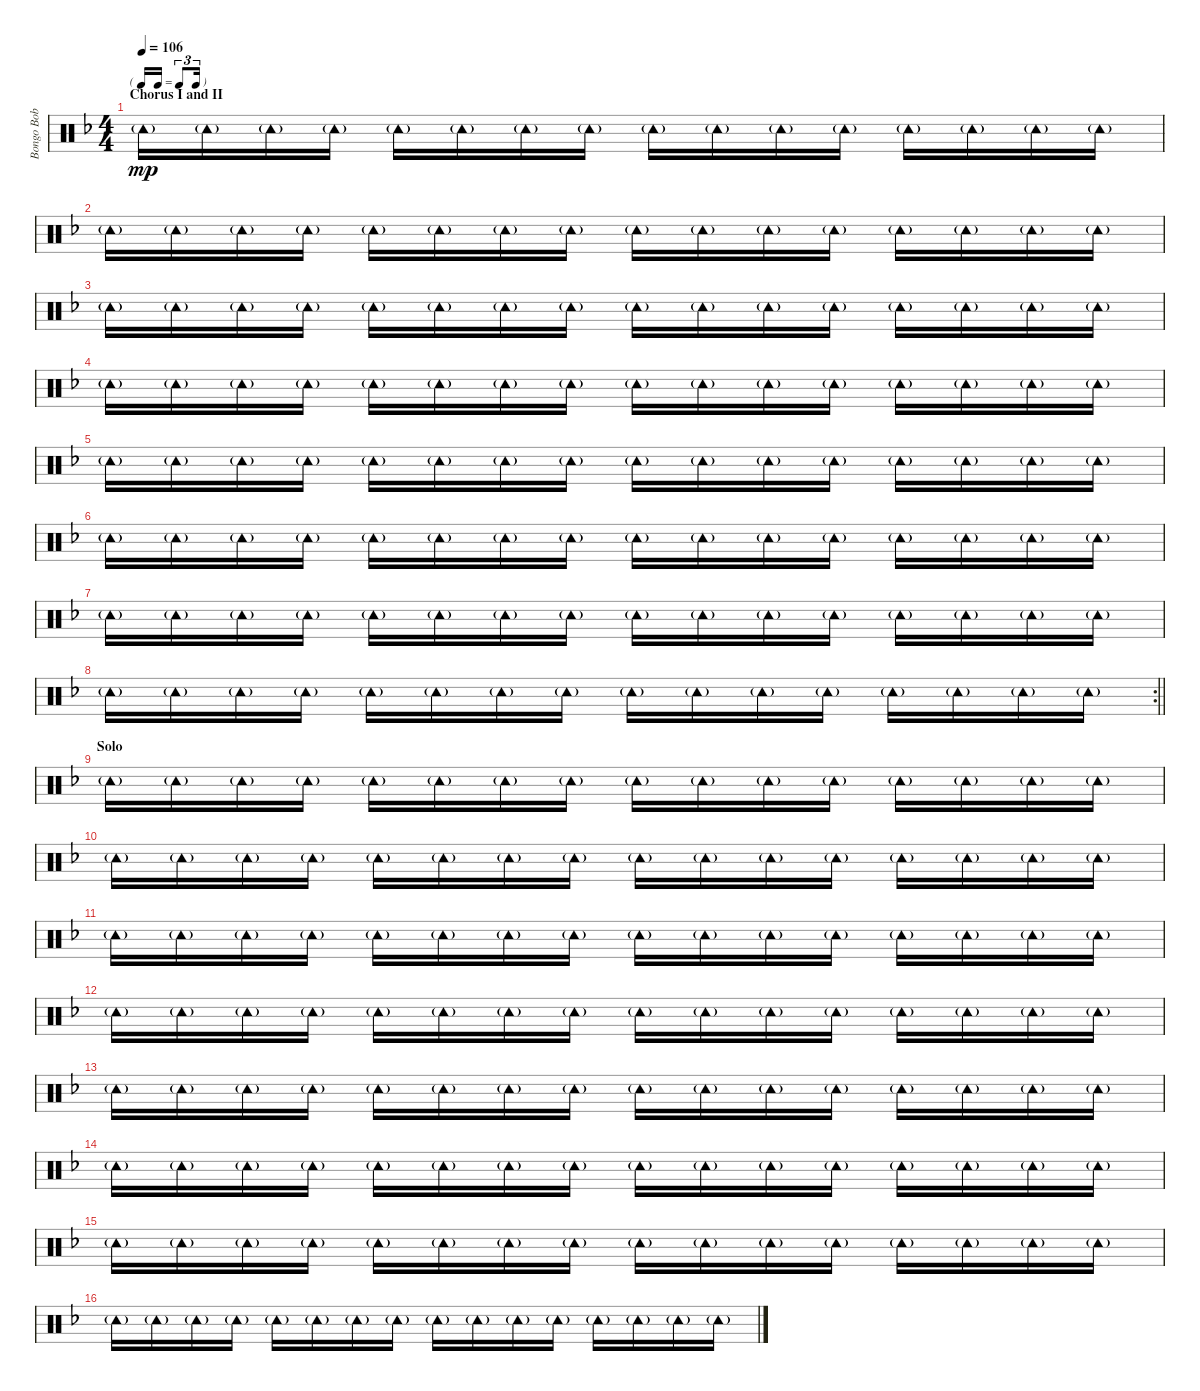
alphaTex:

\track ("Bongo Bob Smith (Tambourine)" "Bongo Bob ") {instrument percussion}
\staff {score}
\articulation defaults
\ts (4 4)
\tf triplet16th
\section ("" "Chorus I and II")
\tempo 106
\clef neutral
\ks f "Tambourine (hit)"{g}.16{dy mp} "Tambourine (hit)"{g}.16 "Tambourine (hit)"{g}.16 "Tambourine (hit)"{g}.16 "Tambourine (hit)"{g}.16 "Tambourine (hit)"{g}.16 "Tambourine (hit)"{g}.16 "Tambourine (hit)"{g}.16 "Tambourine (hit)"{g}.16 "Tambourine (hit)"{g}.16 "Tambourine (hit)"{g}.16 "Tambourine (hit)"{g}.16 "Tambourine (hit)"{g}.16 "Tambourine (hit)"{g}.16 "Tambourine (hit)"{g}.16 "Tambourine (hit)"{g}.16
|
"Tambourine (hit)"{g}.16 "Tambourine (hit)"{g}.16 "Tambourine (hit)"{g}.16 "Tambourine (hit)"{g}.16 "Tambourine (hit)"{g}.16 "Tambourine (hit)"{g}.16 "Tambourine (hit)"{g}.16 "Tambourine (hit)"{g}.16 "Tambourine (hit)"{g}.16 "Tambourine (hit)"{g}.16 "Tambourine (hit)"{g}.16 "Tambourine (hit)"{g}.16 "Tambourine (hit)"{g}.16 "Tambourine (hit)"{g}.16 "Tambourine (hit)"{g}.16 "Tambourine (hit)"{g}.16 |
"Tambourine (hit)"{g}.16 "Tambourine (hit)"{g}.16 "Tambourine (hit)"{g}.16 "Tambourine (hit)"{g}.16 "Tambourine (hit)"{g}.16 "Tambourine (hit)"{g}.16 "Tambourine (hit)"{g}.16 "Tambourine (hit)"{g}.16 "Tambourine (hit)"{g}.16 "Tambourine (hit)"{g}.16 "Tambourine (hit)"{g}.16 "Tambourine (hit)"{g}.16 "Tambourine (hit)"{g}.16 "Tambourine (hit)"{g}.16 "Tambourine (hit)"{g}.16 "Tambourine (hit)"{g}.16 |
"Tambourine (hit)"{g}.16 "Tambourine (hit)"{g}.16 "Tambourine (hit)"{g}.16 "Tambourine (hit)"{g}.16 "Tambourine (hit)"{g}.16 "Tambourine (hit)"{g}.16 "Tambourine (hit)"{g}.16 "Tambourine (hit)"{g}.16 "Tambourine (hit)"{g}.16 "Tambourine (hit)"{g}.16 "Tambourine (hit)"{g}.16 "Tambourine (hit)"{g}.16 "Tambourine (hit)"{g}.16 "Tambourine (hit)"{g}.16 "Tambourine (hit)"{g}.16 "Tambourine (hit)"{g}.16 |
"Tambourine (hit)"{g}.16 "Tambourine (hit)"{g}.16 "Tambourine (hit)"{g}.16 "Tambourine (hit)"{g}.16 "Tambourine (hit)"{g}.16 "Tambourine (hit)"{g}.16 "Tambourine (hit)"{g}.16 "Tambourine (hit)"{g}.16 "Tambourine (hit)"{g}.16 "Tambourine (hit)"{g}.16 "Tambourine (hit)"{g}.16 "Tambourine (hit)"{g}.16 "Tambourine (hit)"{g}.16 "Tambourine (hit)"{g}.16 "Tambourine (hit)"{g}.16 "Tambourine (hit)"{g}.16 |
"Tambourine (hit)"{g}.16 "Tambourine (hit)"{g}.16 "Tambourine (hit)"{g}.16 "Tambourine (hit)"{g}.16 "Tambourine (hit)"{g}.16 "Tambourine (hit)"{g}.16 "Tambourine (hit)"{g}.16 "Tambourine (hit)"{g}.16 "Tambourine (hit)"{g}.16 "Tambourine (hit)"{g}.16 "Tambourine (hit)"{g}.16 "Tambourine (hit)"{g}.16 "Tambourine (hit)"{g}.16 "Tambourine (hit)"{g}.16 "Tambourine (hit)"{g}.16 "Tambourine (hit)"{g}.16 |
"Tambourine (hit)"{g}.16 "Tambourine (hit)"{g}.16 "Tambourine (hit)"{g}.16 "Tambourine (hit)"{g}.16 "Tambourine (hit)"{g}.16 "Tambourine (hit)"{g}.16 "Tambourine (hit)"{g}.16 "Tambourine (hit)"{g}.16 "Tambourine (hit)"{g}.16 "Tambourine (hit)"{g}.16 "Tambourine (hit)"{g}.16 "Tambourine (hit)"{g}.16 "Tambourine (hit)"{g}.16 "Tambourine (hit)"{g}.16 "Tambourine (hit)"{g}.16 "Tambourine (hit)"{g}.16 |
\rc 2
\barLineRight lightlight "Tambourine (hit)"{g}.16 "Tambourine (hit)"{g}.16 "Tambourine (hit)"{g}.16 "Tambourine (hit)"{g}.16 "Tambourine (hit)"{g}.16 "Tambourine (hit)"{g}.16 "Tambourine (hit)"{g}.16 "Tambourine (hit)"{g}.16 "Tambourine (hit)"{g}.16 "Tambourine (hit)"{g}.16 "Tambourine (hit)"{g}.16 "Tambourine (hit)"{g}.16 "Tambourine (hit)"{g}.16 "Tambourine (hit)"{g}.16 "Tambourine (hit)"{g}.16 "Tambourine (hit)"{g}.16
|
\section ("" "Solo")
"Tambourine (hit)"{g}.16 "Tambourine (hit)"{g}.16 "Tambourine (hit)"{g}.16 "Tambourine (hit)"{g}.16 "Tambourine (hit)"{g}.16 "Tambourine (hit)"{g}.16 "Tambourine (hit)"{g}.16 "Tambourine (hit)"{g}.16 "Tambourine (hit)"{g}.16 "Tambourine (hit)"{g}.16 "Tambourine (hit)"{g}.16 "Tambourine (hit)"{g}.16 "Tambourine (hit)"{g}.16 "Tambourine (hit)"{g}.16 "Tambourine (hit)"{g}.16 "Tambourine (hit)"{g}.16 |
"Tambourine (hit)"{g}.16 "Tambourine (hit)"{g}.16 "Tambourine (hit)"{g}.16 "Tambourine (hit)"{g}.16 "Tambourine (hit)"{g}.16 "Tambourine (hit)"{g}.16 "Tambourine (hit)"{g}.16 "Tambourine (hit)"{g}.16 "Tambourine (hit)"{g}.16 "Tambourine (hit)"{g}.16 "Tambourine (hit)"{g}.16 "Tambourine (hit)"{g}.16 "Tambourine (hit)"{g}.16 "Tambourine (hit)"{g}.16 "Tambourine (hit)"{g}.16 "Tambourine (hit)"{g}.16 |
"Tambourine (hit)"{g}.16 "Tambourine (hit)"{g}.16 "Tambourine (hit)"{g}.16 "Tambourine (hit)"{g}.16 "Tambourine (hit)"{g}.16 "Tambourine (hit)"{g}.16 "Tambourine (hit)"{g}.16 "Tambourine (hit)"{g}.16 "Tambourine (hit)"{g}.16 "Tambourine (hit)"{g}.16 "Tambourine (hit)"{g}.16 "Tambourine (hit)"{g}.16 "Tambourine (hit)"{g}.16 "Tambourine (hit)"{g}.16 "Tambourine (hit)"{g}.16 "Tambourine (hit)"{g}.16 |
"Tambourine (hit)"{g}.16 "Tambourine (hit)"{g}.16 "Tambourine (hit)"{g}.16 "Tambourine (hit)"{g}.16 "Tambourine (hit)"{g}.16 "Tambourine (hit)"{g}.16 "Tambourine (hit)"{g}.16 "Tambourine (hit)"{g}.16 "Tambourine (hit)"{g}.16 "Tambourine (hit)"{g}.16 "Tambourine (hit)"{g}.16 "Tambourine (hit)"{g}.16 "Tambourine (hit)"{g}.16 "Tambourine (hit)"{g}.16 "Tambourine (hit)"{g}.16 "Tambourine (hit)"{g}.16 |
"Tambourine (hit)"{g}.16 "Tambourine (hit)"{g}.16 "Tambourine (hit)"{g}.16 "Tambourine (hit)"{g}.16 "Tambourine (hit)"{g}.16 "Tambourine (hit)"{g}.16 "Tambourine (hit)"{g}.16 "Tambourine (hit)"{g}.16 "Tambourine (hit)"{g}.16 "Tambourine (hit)"{g}.16 "Tambourine (hit)"{g}.16 "Tambourine (hit)"{g}.16 "Tambourine (hit)"{g}.16 "Tambourine (hit)"{g}.16 "Tambourine (hit)"{g}.16 "Tambourine (hit)"{g}.16 |
"Tambourine (hit)"{g}.16 "Tambourine (hit)"{g}.16 "Tambourine (hit)"{g}.16 "Tambourine (hit)"{g}.16 "Tambourine (hit)"{g}.16 "Tambourine (hit)"{g}.16 "Tambourine (hit)"{g}.16 "Tambourine (hit)"{g}.16 "Tambourine (hit)"{g}.16 "Tambourine (hit)"{g}.16 "Tambourine (hit)"{g}.16 "Tambourine (hit)"{g}.16 "Tambourine (hit)"{g}.16 "Tambourine (hit)"{g}.16 "Tambourine (hit)"{g}.16 "Tambourine (hit)"{g}.16 |
"Tambourine (hit)"{g}.16 "Tambourine (hit)"{g}.16 "Tambourine (hit)"{g}.16 "Tambourine (hit)"{g}.16 "Tambourine (hit)"{g}.16 "Tambourine (hit)"{g}.16 "Tambourine (hit)"{g}.16 "Tambourine (hit)"{g}.16 "Tambourine (hit)"{g}.16 "Tambourine (hit)"{g}.16 "Tambourine (hit)"{g}.16 "Tambourine (hit)"{g}.16 "Tambourine (hit)"{g}.16 "Tambourine (hit)"{g}.16 "Tambourine (hit)"{g}.16 "Tambourine (hit)"{g}.16 |
"Tambourine (hit)"{g}.16 "Tambourine (hit)"{g}.16 "Tambourine (hit)"{g}.16 "Tambourine (hit)"{g}.16 "Tambourine (hit)"{g}.16 "Tambourine (hit)"{g}.16 "Tambourine (hit)"{g}.16 "Tambourine (hit)"{g}.16 "Tambourine (hit)"{g}.16 "Tambourine (hit)"{g}.16 "Tambourine (hit)"{g}.16 "Tambourine (hit)"{g}.16 "Tambourine (hit)"{g}.16 "Tambourine (hit)"{g}.16 "Tambourine (hit)"{g}.16 "Tambourine (hit)"{g}.16
